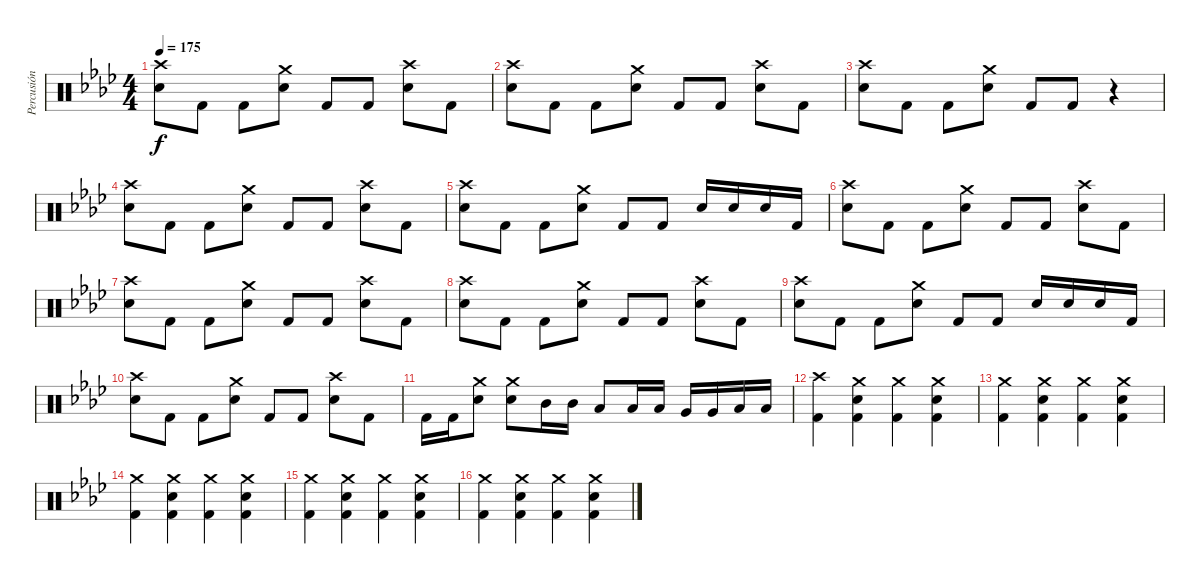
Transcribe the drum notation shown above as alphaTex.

\track ("Percusión" "Percusión") {instrument percussion}
\staff {score}
\articulation defaults
\ts (4 4)
\tempo 175
\clef neutral
\ks fminor
("Snare (hit) 2" "Crash high (hit)").8{dy f} "Kick (hit) 2".8 "Kick (hit) 2".8 ("Snare (hit) 2" "Crash medium (hit)").8 "Kick (hit) 2".8 "Kick (hit) 2".8 ("Snare (hit) 2" "Crash high (hit)").8 "Kick (hit) 2".8 |
("Snare (hit) 2" "Crash high (hit)").8 "Kick (hit) 2".8 "Kick (hit) 2".8 ("Snare (hit) 2" "Crash medium (hit)").8 "Kick (hit) 2".8 "Kick (hit) 2".8 ("Snare (hit) 2" "Crash high (hit)").8 "Kick (hit) 2".8 |
("Snare (hit) 2" "Crash high (hit)").8 "Kick (hit) 2".8 "Kick (hit) 2".8 ("Snare (hit) 2" "Crash medium (hit)").8 "Kick (hit) 2".8 "Kick (hit) 2".8 r.4 |
("Snare (hit) 2" "Crash high (hit)").8 "Kick (hit) 2".8 "Kick (hit) 2".8 ("Snare (hit) 2" "Crash medium (hit)").8 "Kick (hit) 2".8 "Kick (hit) 2".8 ("Snare (hit) 2" "Crash high (hit)").8 "Kick (hit) 2".8 |
("Snare (hit) 2" "Crash high (hit)").8 "Kick (hit) 2".8 "Kick (hit) 2".8 ("Snare (hit) 2" "Crash medium (hit)").8 "Kick (hit) 2".8 "Kick (hit) 2".8 "Snare (hit) 2".16 "Snare (hit) 2".16 "Snare (hit) 2".16 "Kick (hit) 2".16 |
("Snare (hit) 2" "Crash high (hit)").8 "Kick (hit) 2".8 "Kick (hit) 2".8 ("Snare (hit) 2" "Crash medium (hit)").8 "Kick (hit) 2".8 "Kick (hit) 2".8 ("Snare (hit) 2" "Crash high (hit)").8 "Kick (hit) 2".8 |
("Snare (hit) 2" "Crash high (hit)").8 "Kick (hit) 2".8 "Kick (hit) 2".8 ("Snare (hit) 2" "Crash medium (hit)").8 "Kick (hit) 2".8 "Kick (hit) 2".8 ("Snare (hit) 2" "Crash high (hit)").8 "Kick (hit) 2".8 |
("Snare (hit) 2" "Crash high (hit)").8 "Kick (hit) 2".8 "Kick (hit) 2".8 ("Snare (hit) 2" "Crash medium (hit)").8 "Kick (hit) 2".8 "Kick (hit) 2".8 ("Snare (hit) 2" "Crash high (hit)").8 "Kick (hit) 2".8 |
("Snare (hit) 2" "Crash high (hit)").8 "Kick (hit) 2".8 "Kick (hit) 2".8 ("Snare (hit) 2" "Crash medium (hit)").8 "Kick (hit) 2".8 "Kick (hit) 2".8 "Snare (hit) 2".16 "Snare (hit) 2".16 "Snare (hit) 2".16 "Kick (hit) 2".16 |
("Snare (hit) 2" "Crash high (hit)").8 "Kick (hit) 2".8 "Kick (hit) 2".8 ("Snare (hit) 2" "Crash medium (hit)").8 "Kick (hit) 2".8 "Kick (hit) 2".8 ("Snare (hit) 2" "Crash high (hit)").8 "Kick (hit) 2".8 |
"Kick (hit) 2".16 "Kick (hit) 2".16 ("Snare (hit) 2" "Crash medium (hit)").8 ("Snare (hit) 2" "Crash medium (hit)").8 "Mid Tom (hit)".16 "Mid Tom (hit)".16 "Low Tom (hit)".8 "Low Tom (hit)".16 "Low Tom (hit)".16 "Very Low Tom (hit)".16 "Very Low Tom (hit)".16 "Low Floor Tom (hit)".16 "Low Floor Tom (hit)".16 |
("Kick (hit) 2" "Crash high (hit)").4 ("Kick (hit) 2" "Snare (hit) 2" "Crash medium (hit)").4 ("Kick (hit) 2" "Crash medium (hit)").4 ("Kick (hit) 2" "Snare (hit) 2" "Crash medium (hit)").4 |
("Kick (hit) 2" "Crash medium (hit)").4 ("Kick (hit) 2" "Snare (hit) 2" "Crash medium (hit)").4 ("Kick (hit) 2" "Crash medium (hit)").4 ("Kick (hit) 2" "Snare (hit) 2" "Crash medium (hit)").4 |
("Kick (hit) 2" "Crash medium (hit)").4 ("Kick (hit) 2" "Snare (hit) 2" "Crash medium (hit)").4 ("Kick (hit) 2" "Crash medium (hit)").4 ("Kick (hit) 2" "Snare (hit) 2" "Crash medium (hit)").4 |
("Kick (hit) 2" "Crash medium (hit)").4 ("Kick (hit) 2" "Snare (hit) 2" "Crash medium (hit)").4 ("Kick (hit) 2" "Crash medium (hit)").4 ("Kick (hit) 2" "Snare (hit) 2" "Crash medium (hit)").4 |
("Kick (hit) 2" "Crash medium (hit)").4 ("Kick (hit) 2" "Snare (hit) 2" "Crash medium (hit)").4 ("Kick (hit) 2" "Crash medium (hit)").4 ("Kick (hit) 2" "Snare (hit) 2" "Crash medium (hit)").4
